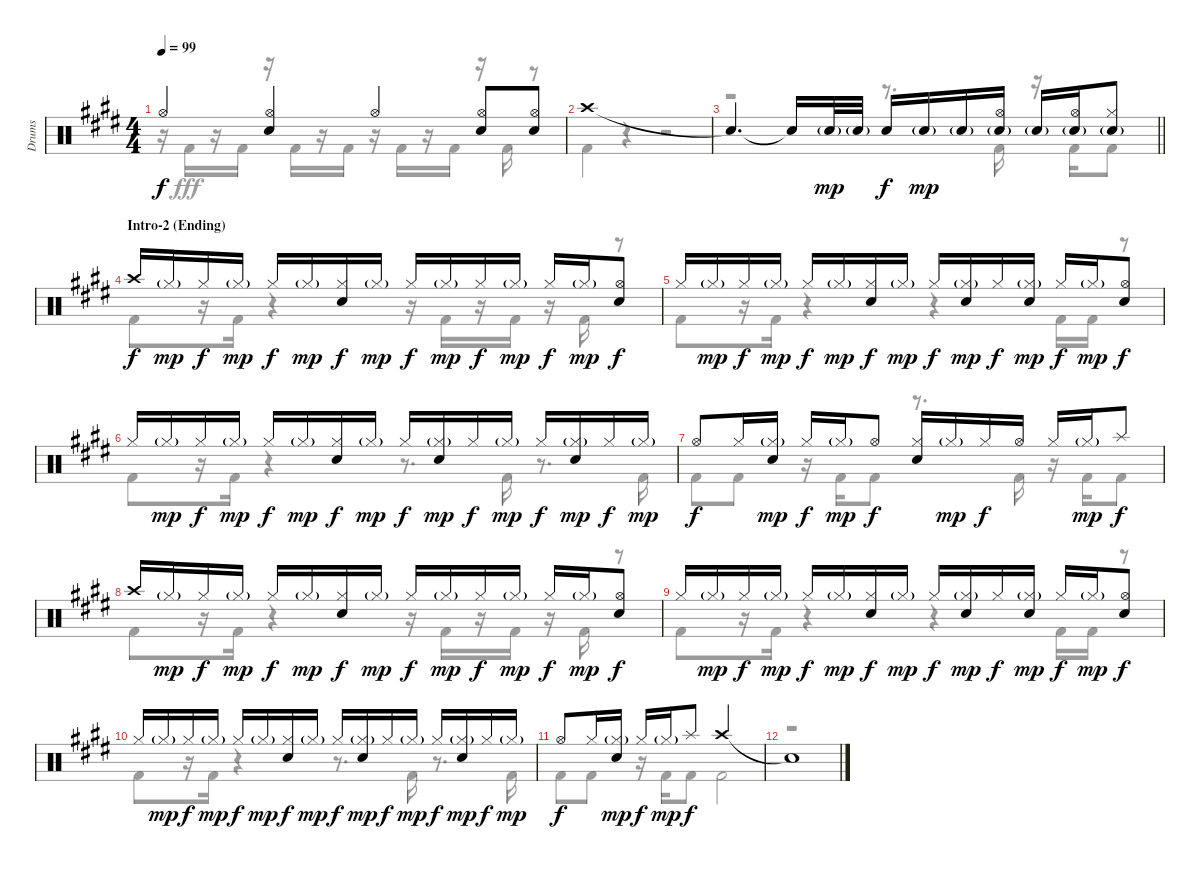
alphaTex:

\track ("Drums" "Drums") {instrument percussion}
\staff {score}
\articulation defaults
\voice
\ts (4 4)
\tempo 99
\clef neutral
\ks e "Hi-Hat (open)".4{dy f}
("Hi-Hat (open)" "Snare (hit) 2").4 "Hi-Hat (open)".4 ("Hi-Hat (open)" "Snare (hit) 2").8 ("Hi-Hat (open)" "Snare (hit) 2").8 |
"Crash high (hit)".1 |
\barLineRight lightlight "Snare (hit)"{t}.4{d} "Snare (hit) 2"{t}.16 "Snare (hit) 2"{g}.32{dy mp} "Snare (hit) 2"{g}.32 "Snare (hit) 2".16{dy f} "Snare (hit) 2"{g}.16{dy mp} "Snare (hit) 2"{g}.16
("Hi-Hat (open)" "Snare (hit) 2"{g}).16 "Snare (hit) 2"{g}.16 ("Hi-Hat (open)" "Snare (hit) 2"{g}).16 ("Hi-Hat (closed)" "Snare (hit) 2"{g}).8 |
\section ("" "Intro-2 (Ending)")
"Crash high (hit)".16{dy f} "Hi-Hat (closed)"{g}.16{dy mp} "Hi-Hat (closed)".16{dy f} "Hi-Hat (closed)"{g}.16{dy mp} "Hi-Hat (closed)".16{dy f} "Hi-Hat (closed)"{g}.16{dy mp} ("Hi-Hat (closed)" "Snare (hit) 2").16{dy f} "Hi-Hat (closed)"{g}.16{dy mp} "Hi-Hat (closed)".16{dy f} "Hi-Hat (closed)"{g}.16{dy mp} "Hi-Hat (closed)".16{dy f} "Hi-Hat (closed)"{g}.16{dy mp} "Hi-Hat (closed)".16{dy f} "Hi-Hat (closed)"{g}.16{dy mp} ("Hi-Hat (open)" "Snare (hit) 2").8{dy f} |
"Hi-Hat (closed)".16 "Hi-Hat (closed)"{g}.16{dy mp} "Hi-Hat (closed)".16{dy f} "Hi-Hat (closed)"{g}.16{dy mp} "Hi-Hat (closed)".16{dy f} "Hi-Hat (closed)"{g}.16{dy mp} ("Hi-Hat (closed)" "Snare (hit) 2").16{dy f} "Hi-Hat (closed)"{g}.16{dy mp} "Hi-Hat (closed)".16{dy f} ("Hi-Hat (closed)"{g} "Snare (hit) 2").16{dy mp} "Hi-Hat (closed)".16{dy f} ("Hi-Hat (closed)"{g} "Snare (hit) 2").16{dy mp} "Hi-Hat (closed)".16{dy f} "Hi-Hat (closed)"{g}.16{dy mp} ("Hi-Hat (open)" "Snare (hit) 2").8{dy f} |
"Hi-Hat (closed)".16 "Hi-Hat (closed)"{g}.16{dy mp} "Hi-Hat (closed)".16{dy f} "Hi-Hat (closed)"{g}.16{dy mp} "Hi-Hat (closed)".16{dy f} "Hi-Hat (closed)"{g}.16{dy mp} ("Hi-Hat (closed)" "Snare (hit) 2").16{dy f} "Hi-Hat (closed)"{g}.16{dy mp} "Hi-Hat (closed)".16{dy f} ("Hi-Hat (closed)"{g} "Snare (hit) 2").16{dy mp} "Hi-Hat (closed)".16{dy f} "Hi-Hat (closed)"{g}.16{dy mp} "Hi-Hat (closed)".16{dy f} ("Hi-Hat (closed)"{g} "Snare (hit) 2").16{dy mp} "Hi-Hat (closed)".16{dy f} "Hi-Hat (closed)"{g}.16{dy mp} |
"Hi-Hat (open)".8{dy f} "Hi-Hat (closed)".16 ("Hi-Hat (closed)"{g} "Snare (hit) 2").16{dy mp} "Hi-Hat (closed)".16{dy f} "Hi-Hat (closed)"{g}.16{dy mp} "Hi-Hat (open)".8{dy f} ("Hi-Hat (closed)" "Snare (hit) 2").16 "Hi-Hat (closed)"{g}.16{dy mp} "Hi-Hat (closed)".16{dy f} "Hi-Hat (open)".16 "Hi-Hat (closed)".16 "Hi-Hat (closed)"{g}.16{dy mp} "Splash (hit)".8{dy f} |
"Crash high (hit)".16 "Hi-Hat (closed)"{g}.16{dy mp} "Hi-Hat (closed)".16{dy f} "Hi-Hat (closed)"{g}.16{dy mp} "Hi-Hat (closed)".16{dy f} "Hi-Hat (closed)"{g}.16{dy mp} ("Hi-Hat (closed)" "Snare (hit) 2").16{dy f} "Hi-Hat (closed)"{g}.16{dy mp} "Hi-Hat (closed)".16{dy f} "Hi-Hat (closed)"{g}.16{dy mp} "Hi-Hat (closed)".16{dy f} "Hi-Hat (closed)"{g}.16{dy mp} "Hi-Hat (closed)".16{dy f} "Hi-Hat (closed)"{g}.16{dy mp} ("Hi-Hat (open)" "Snare (hit) 2").8{dy f} |
"Hi-Hat (closed)".16 "Hi-Hat (closed)"{g}.16{dy mp} "Hi-Hat (closed)".16{dy f} "Hi-Hat (closed)"{g}.16{dy mp} "Hi-Hat (closed)".16{dy f} "Hi-Hat (closed)"{g}.16{dy mp} ("Hi-Hat (closed)" "Snare (hit) 2").16{dy f} "Hi-Hat (closed)"{g}.16{dy mp} "Hi-Hat (closed)".16{dy f} ("Hi-Hat (closed)"{g} "Snare (hit) 2").16{dy mp} "Hi-Hat (closed)".16{dy f} ("Hi-Hat (closed)"{g} "Snare (hit) 2").16{dy mp} "Hi-Hat (closed)".16{dy f} "Hi-Hat (closed)"{g}.16{dy mp} ("Hi-Hat (open)" "Snare (hit) 2").8{dy f} |
"Hi-Hat (closed)".16 "Hi-Hat (closed)"{g}.16{dy mp} "Hi-Hat (closed)".16{dy f} "Hi-Hat (closed)"{g}.16{dy mp} "Hi-Hat (closed)".16{dy f} "Hi-Hat (closed)"{g}.16{dy mp} ("Hi-Hat (closed)" "Snare (hit) 2").16{dy f} "Hi-Hat (closed)"{g}.16{dy mp} "Hi-Hat (closed)".16{dy f} ("Hi-Hat (closed)"{g} "Snare (hit) 2").16{dy mp} "Hi-Hat (closed)".16{dy f} "Hi-Hat (closed)"{g}.16{dy mp} "Hi-Hat (closed)".16{dy f} ("Hi-Hat (closed)"{g} "Snare (hit) 2").16{dy mp} "Hi-Hat (closed)".16{dy f} "Hi-Hat (closed)"{g}.16{dy mp} |
"Hi-Hat (open)".8{dy f} "Hi-Hat (closed)".16 ("Hi-Hat (closed)"{g} "Snare (hit) 2").16{dy mp} "Hi-Hat (closed)".16{dy f} "Hi-Hat (closed)"{g}.16{dy mp} "Splash (hit)".8{dy f} "Crash high (hit)".2 |
"Snare (hit)"{t}.1
\voice
\clef neutral
\ottava regular
\simile none
\ks e
r.16{dy fff} "Kick (hit) 2".16 r.16 "Kick (hit) 2".16 r.16 "Kick (hit) 2".16 r.16 "Kick (hit) 2".16 r.16 "Kick (hit) 2".16 r.16 "Kick (hit) 2".16 r.16 "Kick (hit) 2".16 r.8 |
"Kick (hit) 2".4 r.4 r.2 |
\barLineRight lightlight
r.2 r.8{d} "Kick (hit) 2".16 r.16 "Kick (hit) 2".16 "Kick (hit) 2".8 |
"Kick (hit) 2".8 r.16 "Kick (hit) 2".16 r.4 r.16 "Kick (hit) 2".16 r.16 "Kick (hit) 2".16 r.16 "Kick (hit) 2".16 r.8 |
"Kick (hit) 2".8 r.16 "Kick (hit) 2".16 r.4 r.4 "Kick (hit) 2".16 "Kick (hit) 2".16 r.8 |
"Kick (hit) 2".8 r.16 "Kick (hit) 2".16 r.4 r.8{d} "Kick (hit) 2".16 r.8{d} "Kick (hit) 2".16 |
"Kick (hit) 2".8 "Kick (hit) 2".8 r.16 "Kick (hit) 2".16 "Kick (hit) 2".8 r.8{d} "Kick (hit) 2".16 r.16 "Kick (hit) 2".16 "Kick (hit) 2".8 |
"Kick (hit) 2".8 r.16 "Kick (hit) 2".16 r.4 r.16 "Kick (hit) 2".16 r.16 "Kick (hit) 2".16 r.16 "Kick (hit) 2".16 r.8 |
"Kick (hit) 2".8 r.16 "Kick (hit) 2".16 r.4 r.4 "Kick (hit) 2".16 "Kick (hit) 2".16 r.8 |
"Kick (hit) 2".8 r.16 "Kick (hit) 2".16 r.4 r.8{d} "Kick (hit) 2".16 r.8{d} "Kick (hit) 2".16 |
"Kick (hit) 2".8 "Kick (hit) 2".8 r.16 "Kick (hit) 2".16 "Kick (hit) 2".8 "Kick (hit) 2".2 |
r.1
